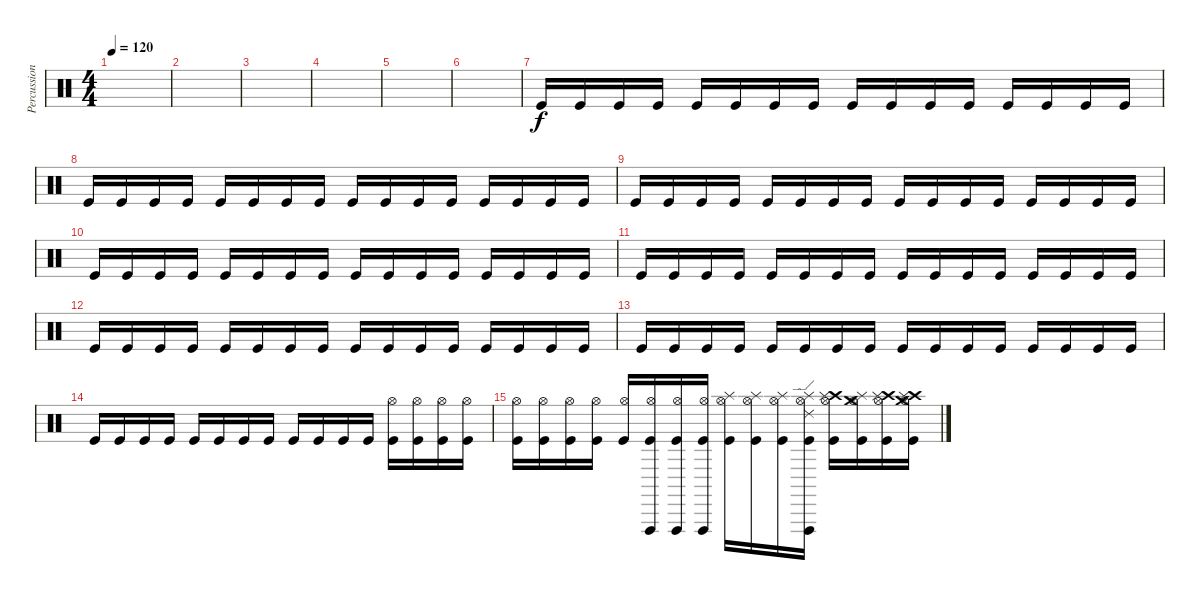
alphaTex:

\track ("Percussion" "Percussion") {instrument percussion}
\staff {score}
\articulation defaults
\ts (4 4)
\tempo 120
\clef neutral
\ks c
|
|
|
|
|
|
"Kick (hit)".16 "Kick (hit)".16 "Kick (hit)".16 "Kick (hit)".16 "Kick (hit)".16 "Kick (hit)".16 "Kick (hit)".16 "Kick (hit)".16 "Kick (hit)".16 "Kick (hit)".16 "Kick (hit)".16 "Kick (hit)".16 "Kick (hit)".16 "Kick (hit)".16 "Kick (hit)".16 "Kick (hit)".16 |
"Kick (hit)".16 "Kick (hit)".16 "Kick (hit)".16 "Kick (hit)".16 "Kick (hit)".16 "Kick (hit)".16 "Kick (hit)".16 "Kick (hit)".16 "Kick (hit)".16 "Kick (hit)".16 "Kick (hit)".16 "Kick (hit)".16 "Kick (hit)".16 "Kick (hit)".16 "Kick (hit)".16 "Kick (hit)".16 |
"Kick (hit)".16 "Kick (hit)".16 "Kick (hit)".16 "Kick (hit)".16 "Kick (hit)".16 "Kick (hit)".16 "Kick (hit)".16 "Kick (hit)".16 "Kick (hit)".16 "Kick (hit)".16 "Kick (hit)".16 "Kick (hit)".16 "Kick (hit)".16 "Kick (hit)".16 "Kick (hit)".16 "Kick (hit)".16 |
"Kick (hit)".16 "Kick (hit)".16 "Kick (hit)".16 "Kick (hit)".16 "Kick (hit)".16 "Kick (hit)".16 "Kick (hit)".16 "Kick (hit)".16 "Kick (hit)".16 "Kick (hit)".16 "Kick (hit)".16 "Kick (hit)".16 "Kick (hit)".16 "Kick (hit)".16 "Kick (hit)".16 "Kick (hit)".16 |
"Kick (hit)".16 "Kick (hit)".16 "Kick (hit)".16 "Kick (hit)".16 "Kick (hit)".16 "Kick (hit)".16 "Kick (hit)".16 "Kick (hit)".16 "Kick (hit)".16 "Kick (hit)".16 "Kick (hit)".16 "Kick (hit)".16 "Kick (hit)".16 "Kick (hit)".16 "Kick (hit)".16 "Kick (hit)".16 |
"Kick (hit)".16 "Kick (hit)".16 "Kick (hit)".16 "Kick (hit)".16 "Kick (hit)".16 "Kick (hit)".16 "Kick (hit)".16 "Kick (hit)".16 "Kick (hit)".16 "Kick (hit)".16 "Kick (hit)".16 "Kick (hit)".16 "Kick (hit)".16 "Kick (hit)".16 "Kick (hit)".16 "Kick (hit)".16 |
"Kick (hit)".16 "Kick (hit)".16 "Kick (hit)".16 "Kick (hit)".16 "Kick (hit)".16 "Kick (hit)".16 "Kick (hit)".16 "Kick (hit)".16 "Kick (hit)".16 "Kick (hit)".16 "Kick (hit)".16 "Kick (hit)".16 "Kick (hit)".16 "Kick (hit)".16 "Kick (hit)".16 "Kick (hit)".16 |
"Kick (hit)".16 "Kick (hit)".16 "Kick (hit)".16 "Kick (hit)".16 "Kick (hit)".16 "Kick (hit)".16 "Kick (hit)".16 "Kick (hit)".16 "Kick (hit)".16 "Kick (hit)".16 "Kick (hit)".16 "Kick (hit)".16 ("Hi-Hat (open)" "Kick (hit)").16 ("Hi-Hat (open)" "Kick (hit)").16 ("Hi-Hat (open)" "Kick (hit)").16 ("Hi-Hat (open)" "Kick (hit)").16 |
("Hi-Hat (open)" "Kick (hit)").16 ("Hi-Hat (open)" "Kick (hit)").16 ("Hi-Hat (open)" "Kick (hit)").16 ("Hi-Hat (open)" "Kick (hit)").16 ("Hi-Hat (open)" "Kick (hit)").16 ("Vibraslap (hit)" "Hi-Hat (open)" "Kick (hit)").16 ("Vibraslap (hit)" "Hi-Hat (open)" "Kick (hit)").16 ("Vibraslap (hit)" "Hi-Hat (open)" "Kick (hit)").16 ("Splash (hit)" "Hi-Hat (open)" "Kick (hit)").16 ("Splash (hit)" "Hi-Hat (open)" "Kick (hit)").16 ("Splash (hit)" "Hi-Hat (open)" "Kick (hit)").16 ("Vibraslap (hit)" "Ride (edge) 2" "Splash (hit)" "Hi-Hat (open)" "Kick (hit)").16 ("Crash high (hit)" "Splash (hit)" "Hi-Hat (open)" "Kick (hit)").16 ("Crash medium (hit)" "Splash (hit)" "Hi-Hat (open)" "Kick (hit)").16 ("Crash high (hit)" "Splash (hit)" "Hi-Hat (open)" "Kick (hit)").16 ("Crash high (hit)" "Crash medium (hit)" "Splash (hit)" "Hi-Hat (open)" "Kick (hit)").16
